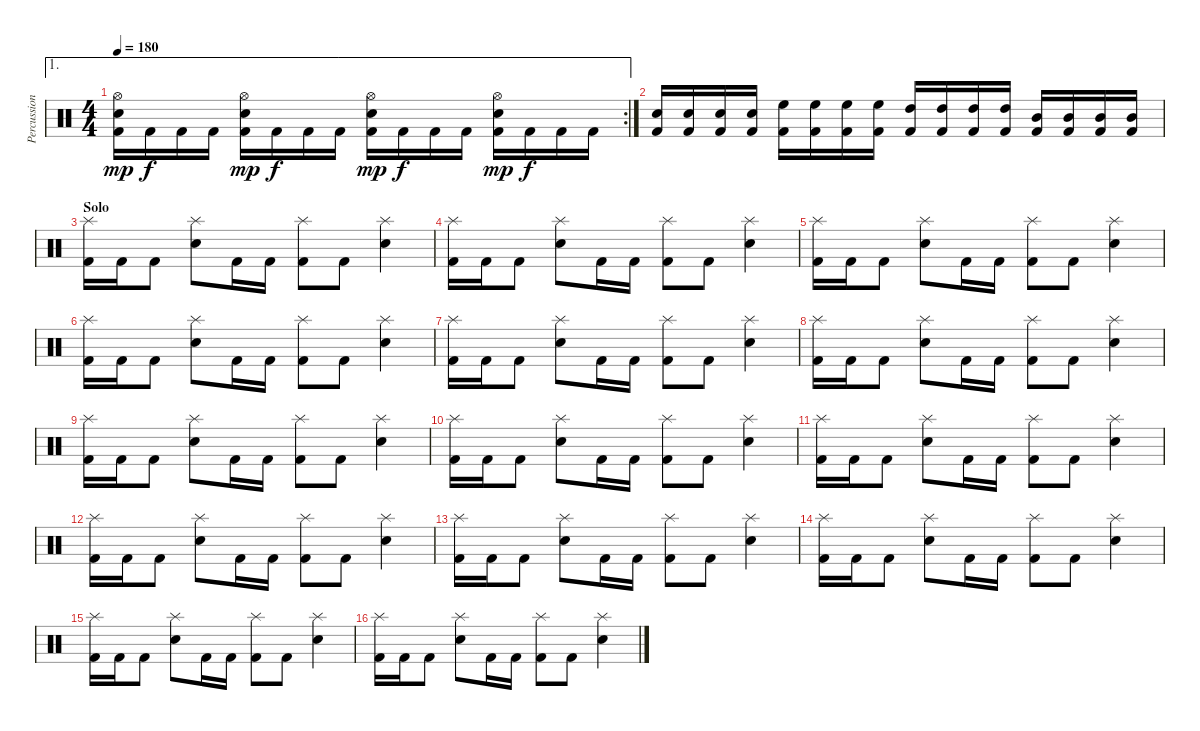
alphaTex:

\track ("Percussion" "Percussion") {instrument percussion}
\staff {score}
\articulation defaults
\ae 1
\rc 2
\ts (4 4)
\tempo 180
\clef neutral
\ks c
("Hi-Hat (open)" "Electric Snare (hit)" "Kick (hit) 2").16{dy mp} "Kick (hit) 2".16{dy f} "Kick (hit) 2".16 "Kick (hit) 2".16 ("Hi-Hat (open)" "Electric Snare (hit)" "Kick (hit) 2").16{dy mp} "Kick (hit) 2".16{dy f} "Kick (hit) 2".16 "Kick (hit) 2".16 ("Hi-Hat (open)" "Electric Snare (hit)" "Kick (hit) 2").16{dy mp} "Kick (hit) 2".16{dy f} "Kick (hit) 2".16 "Kick (hit) 2".16 ("Hi-Hat (open)" "Electric Snare (hit)" "Kick (hit) 2").16{dy mp} "Kick (hit) 2".16{dy f} "Kick (hit) 2".16 "Kick (hit) 2".16 |
("Electric Snare (hit)" "Kick (hit) 2").16 ("Electric Snare (hit)" "Kick (hit) 2").16 ("Electric Snare (hit)" "Kick (hit) 2").16 ("Electric Snare (hit)" "Kick (hit) 2").16 ("High Floor Tom (hit)" "Kick (hit) 2").16 ("High Floor Tom (hit)" "Kick (hit) 2").16 ("High Floor Tom (hit)" "Kick (hit) 2").16 ("High Floor Tom (hit)" "Kick (hit) 2").16 ("High Tom (hit)" "Kick (hit) 2").16 ("High Tom (hit)" "Kick (hit) 2").16 ("High Tom (hit)" "Kick (hit) 2").16 ("High Tom (hit)" "Kick (hit) 2").16 ("Mid Tom (hit)" "Kick (hit) 2").16 ("Mid Tom (hit)" "Kick (hit) 2").16 ("Mid Tom (hit)" "Kick (hit) 2").16 ("Mid Tom (hit)" "Kick (hit) 2").16 |
\section ("" "Solo")
("Splash (hit)" "Kick (hit) 2").16 "Kick (hit) 2".16 "Kick (hit) 2".8 ("Splash (hit)" "Electric Snare (hit)").8 "Kick (hit) 2".16 "Kick (hit) 2".16 ("Splash (hit)" "Kick (hit) 2").8 "Kick (hit) 2".8 ("Splash (hit)" "Electric Snare (hit)").4 |
("Splash (hit)" "Kick (hit) 2").16 "Kick (hit) 2".16 "Kick (hit) 2".8 ("Splash (hit)" "Electric Snare (hit)").8 "Kick (hit) 2".16 "Kick (hit) 2".16 ("Splash (hit)" "Kick (hit) 2").8 "Kick (hit) 2".8 ("Splash (hit)" "Electric Snare (hit)").4 |
("Splash (hit)" "Kick (hit) 2").16 "Kick (hit) 2".16 "Kick (hit) 2".8 ("Splash (hit)" "Electric Snare (hit)").8 "Kick (hit) 2".16 "Kick (hit) 2".16 ("Splash (hit)" "Kick (hit) 2").8 "Kick (hit) 2".8 ("Splash (hit)" "Electric Snare (hit)").4 |
("Splash (hit)" "Kick (hit) 2").16 "Kick (hit) 2".16 "Kick (hit) 2".8 ("Splash (hit)" "Electric Snare (hit)").8 "Kick (hit) 2".16 "Kick (hit) 2".16 ("Splash (hit)" "Kick (hit) 2").8 "Kick (hit) 2".8 ("Splash (hit)" "Electric Snare (hit)").4 |
("Splash (hit)" "Kick (hit) 2").16 "Kick (hit) 2".16 "Kick (hit) 2".8 ("Splash (hit)" "Electric Snare (hit)").8 "Kick (hit) 2".16 "Kick (hit) 2".16 ("Splash (hit)" "Kick (hit) 2").8 "Kick (hit) 2".8 ("Splash (hit)" "Electric Snare (hit)").4 |
("Splash (hit)" "Kick (hit) 2").16 "Kick (hit) 2".16 "Kick (hit) 2".8 ("Splash (hit)" "Electric Snare (hit)").8 "Kick (hit) 2".16 "Kick (hit) 2".16 ("Splash (hit)" "Kick (hit) 2").8 "Kick (hit) 2".8 ("Splash (hit)" "Electric Snare (hit)").4 |
("Splash (hit)" "Kick (hit) 2").16 "Kick (hit) 2".16 "Kick (hit) 2".8 ("Splash (hit)" "Electric Snare (hit)").8 "Kick (hit) 2".16 "Kick (hit) 2".16 ("Splash (hit)" "Kick (hit) 2").8 "Kick (hit) 2".8 ("Splash (hit)" "Electric Snare (hit)").4 |
("Splash (hit)" "Kick (hit) 2").16 "Kick (hit) 2".16 "Kick (hit) 2".8 ("Splash (hit)" "Electric Snare (hit)").8 "Kick (hit) 2".16 "Kick (hit) 2".16 ("Splash (hit)" "Kick (hit) 2").8 "Kick (hit) 2".8 ("Splash (hit)" "Electric Snare (hit)").4 |
("Splash (hit)" "Kick (hit) 2").16 "Kick (hit) 2".16 "Kick (hit) 2".8 ("Splash (hit)" "Electric Snare (hit)").8 "Kick (hit) 2".16 "Kick (hit) 2".16 ("Splash (hit)" "Kick (hit) 2").8 "Kick (hit) 2".8 ("Splash (hit)" "Electric Snare (hit)").4 |
("Splash (hit)" "Kick (hit) 2").16 "Kick (hit) 2".16 "Kick (hit) 2".8 ("Splash (hit)" "Electric Snare (hit)").8 "Kick (hit) 2".16 "Kick (hit) 2".16 ("Splash (hit)" "Kick (hit) 2").8 "Kick (hit) 2".8 ("Splash (hit)" "Electric Snare (hit)").4 |
("Splash (hit)" "Kick (hit) 2").16 "Kick (hit) 2".16 "Kick (hit) 2".8 ("Splash (hit)" "Electric Snare (hit)").8 "Kick (hit) 2".16 "Kick (hit) 2".16 ("Splash (hit)" "Kick (hit) 2").8 "Kick (hit) 2".8 ("Splash (hit)" "Electric Snare (hit)").4 |
("Splash (hit)" "Kick (hit) 2").16 "Kick (hit) 2".16 "Kick (hit) 2".8 ("Splash (hit)" "Electric Snare (hit)").8 "Kick (hit) 2".16 "Kick (hit) 2".16 ("Splash (hit)" "Kick (hit) 2").8 "Kick (hit) 2".8 ("Splash (hit)" "Electric Snare (hit)").4 |
("Splash (hit)" "Kick (hit) 2").16 "Kick (hit) 2".16 "Kick (hit) 2".8 ("Splash (hit)" "Electric Snare (hit)").8 "Kick (hit) 2".16 "Kick (hit) 2".16 ("Splash (hit)" "Kick (hit) 2").8 "Kick (hit) 2".8 ("Splash (hit)" "Electric Snare (hit)").4 |
("Splash (hit)" "Kick (hit) 2").16 "Kick (hit) 2".16 "Kick (hit) 2".8 ("Splash (hit)" "Electric Snare (hit)").8 "Kick (hit) 2".16 "Kick (hit) 2".16 ("Splash (hit)" "Kick (hit) 2").8 "Kick (hit) 2".8 ("Splash (hit)" "Electric Snare (hit)").4
